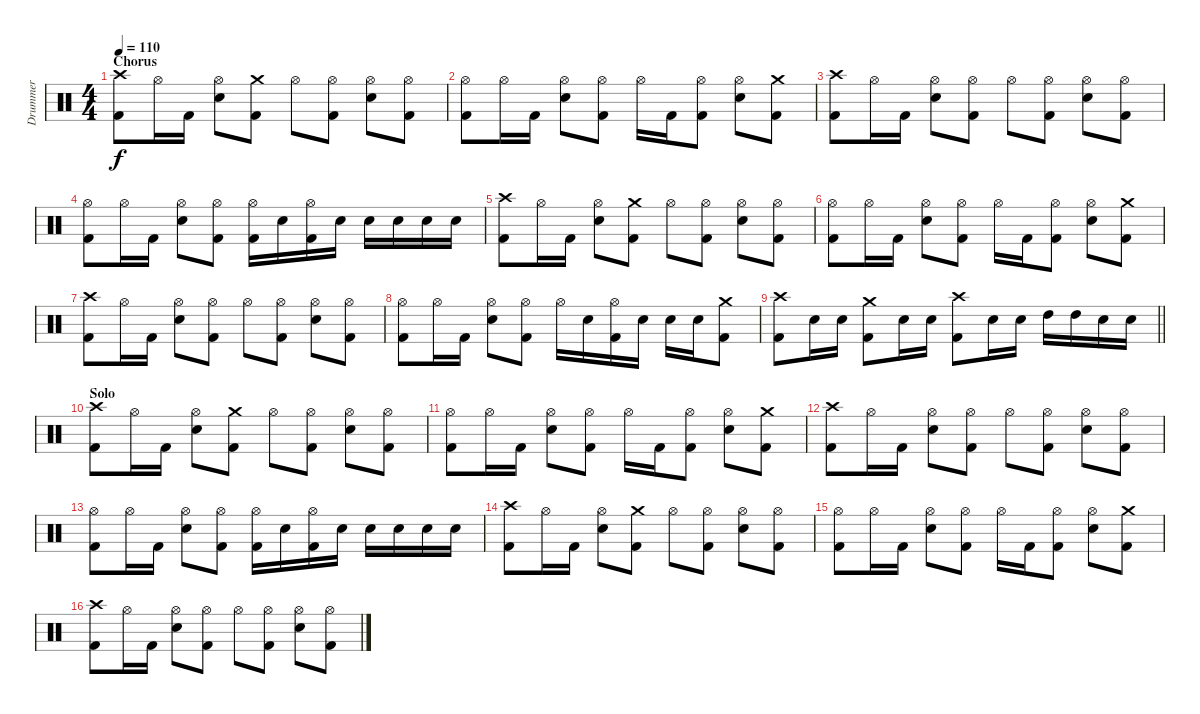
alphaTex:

\track ("Drummer" "Drummer") {instrument percussion}
\staff {score}
\articulation defaults
\ts (4 4)
\section ("" "Chorus")
\tempo 110
\clef neutral
\ks c
("Crash high (hit)" "Kick (hit) 2").8{dy f} "Hi-Hat (open)".16 "Kick (hit) 2".16 ("Hi-Hat (open)" "Electric Snare (hit)").8 ("Crash medium (hit)" "Kick (hit) 2").8 "Hi-Hat (open)".8 ("Hi-Hat (open)" "Kick (hit) 2").8 ("Hi-Hat (open)" "Electric Snare (hit)").8 ("Hi-Hat (open)" "Kick (hit) 2").8 |
("Hi-Hat (open)" "Kick (hit) 2").8 "Hi-Hat (open)".16 "Kick (hit) 2".16 ("Hi-Hat (open)" "Electric Snare (hit)").8 ("Hi-Hat (open)" "Kick (hit) 2").8 "Hi-Hat (open)".16 "Kick (hit) 2".16 ("Hi-Hat (open)" "Kick (hit) 2").8 ("Hi-Hat (open)" "Electric Snare (hit)").8 ("Crash medium (hit)" "Kick (hit) 2").8 |
("Crash high (hit)" "Kick (hit) 2").8 "Hi-Hat (open)".16 "Kick (hit) 2".16 ("Hi-Hat (open)" "Electric Snare (hit)").8 ("Hi-Hat (open)" "Kick (hit) 2").8 "Hi-Hat (open)".8 ("Hi-Hat (open)" "Kick (hit) 2").8 ("Hi-Hat (open)" "Electric Snare (hit)").8 ("Hi-Hat (open)" "Kick (hit) 2").8 |
("Hi-Hat (open)" "Kick (hit) 2").8 "Hi-Hat (open)".16 "Kick (hit) 2".16 ("Hi-Hat (open)" "Electric Snare (hit)").8 ("Hi-Hat (open)" "Kick (hit) 2").8 ("Hi-Hat (open)" "Kick (hit) 2").16 "Electric Snare (hit)".16 ("Hi-Hat (open)" "Kick (hit) 2").16 "Electric Snare (hit)".16 "Electric Snare (hit)".16 "Electric Snare (hit)".16 "Electric Snare (hit)".16 "Electric Snare (hit)".16 |
("Crash high (hit)" "Kick (hit) 2").8 "Hi-Hat (open)".16 "Kick (hit) 2".16 ("Hi-Hat (open)" "Electric Snare (hit)").8 ("Crash medium (hit)" "Kick (hit) 2").8 "Hi-Hat (open)".8 ("Hi-Hat (open)" "Kick (hit) 2").8 ("Hi-Hat (open)" "Electric Snare (hit)").8 ("Hi-Hat (open)" "Kick (hit) 2").8 |
("Hi-Hat (open)" "Kick (hit) 2").8 "Hi-Hat (open)".16 "Kick (hit) 2".16 ("Hi-Hat (open)" "Electric Snare (hit)").8 ("Hi-Hat (open)" "Kick (hit) 2").8 "Hi-Hat (open)".16 "Kick (hit) 2".16 ("Hi-Hat (open)" "Kick (hit) 2").8 ("Hi-Hat (open)" "Electric Snare (hit)").8 ("Crash medium (hit)" "Kick (hit) 2").8 |
("Crash high (hit)" "Kick (hit) 2").8 "Hi-Hat (open)".16 "Kick (hit) 2".16 ("Hi-Hat (open)" "Electric Snare (hit)").8 ("Hi-Hat (open)" "Kick (hit) 2").8 "Hi-Hat (open)".8 ("Hi-Hat (open)" "Kick (hit) 2").8 ("Hi-Hat (open)" "Electric Snare (hit)").8 ("Hi-Hat (open)" "Kick (hit) 2").8 |
("Hi-Hat (open)" "Kick (hit) 2").8 "Hi-Hat (open)".16 "Kick (hit) 2".16 ("Hi-Hat (open)" "Electric Snare (hit)").8 ("Hi-Hat (open)" "Kick (hit) 2").8 "Hi-Hat (open)".16 "Electric Snare (hit)".16 ("Hi-Hat (open)" "Kick (hit) 2").16 "Electric Snare (hit)".16 "Electric Snare (hit)".16 "Electric Snare (hit)".16 ("Crash medium (hit)" "Kick (hit) 2").8 |
\barLineRight lightlight
("Crash high (hit)" "Kick (hit) 2").8 "Electric Snare (hit)".16 "Electric Snare (hit)".16 ("Crash medium (hit)" "Kick (hit) 2").8 "Electric Snare (hit)".16 "Electric Snare (hit)".16 ("Crash high (hit)" "Kick (hit) 2").8 "Electric Snare (hit)".16 "Electric Snare (hit)".16 "High Tom (hit)".16 "High Tom (hit)".16 "Electric Snare (hit)".16 "Electric Snare (hit)".16 |
\section ("" "Solo")
("Crash high (hit)" "Kick (hit) 2").8 "Hi-Hat (open)".16 "Kick (hit) 2".16 ("Hi-Hat (open)" "Electric Snare (hit)").8 ("Crash medium (hit)" "Kick (hit) 2").8 "Hi-Hat (open)".8 ("Hi-Hat (open)" "Kick (hit) 2").8 ("Hi-Hat (open)" "Electric Snare (hit)").8 ("Hi-Hat (open)" "Kick (hit) 2").8 |
("Hi-Hat (open)" "Kick (hit) 2").8 "Hi-Hat (open)".16 "Kick (hit) 2".16 ("Hi-Hat (open)" "Electric Snare (hit)").8 ("Hi-Hat (open)" "Kick (hit) 2").8 "Hi-Hat (open)".16 "Kick (hit) 2".16 ("Hi-Hat (open)" "Kick (hit) 2").8 ("Hi-Hat (open)" "Electric Snare (hit)").8 ("Crash medium (hit)" "Kick (hit) 2").8 |
("Crash high (hit)" "Kick (hit) 2").8 "Hi-Hat (open)".16 "Kick (hit) 2".16 ("Hi-Hat (open)" "Electric Snare (hit)").8 ("Hi-Hat (open)" "Kick (hit) 2").8 "Hi-Hat (open)".8 ("Hi-Hat (open)" "Kick (hit) 2").8 ("Hi-Hat (open)" "Electric Snare (hit)").8 ("Hi-Hat (open)" "Kick (hit) 2").8 |
("Hi-Hat (open)" "Kick (hit) 2").8 "Hi-Hat (open)".16 "Kick (hit) 2".16 ("Hi-Hat (open)" "Electric Snare (hit)").8 ("Hi-Hat (open)" "Kick (hit) 2").8 ("Hi-Hat (open)" "Kick (hit) 2").16 "Electric Snare (hit)".16 ("Hi-Hat (open)" "Kick (hit) 2").16 "Electric Snare (hit)".16 "Electric Snare (hit)".16 "Electric Snare (hit)".16 "Electric Snare (hit)".16 "Electric Snare (hit)".16 |
("Crash high (hit)" "Kick (hit) 2").8 "Hi-Hat (open)".16 "Kick (hit) 2".16 ("Hi-Hat (open)" "Electric Snare (hit)").8 ("Crash medium (hit)" "Kick (hit) 2").8 "Hi-Hat (open)".8 ("Hi-Hat (open)" "Kick (hit) 2").8 ("Hi-Hat (open)" "Electric Snare (hit)").8 ("Hi-Hat (open)" "Kick (hit) 2").8 |
("Hi-Hat (open)" "Kick (hit) 2").8 "Hi-Hat (open)".16 "Kick (hit) 2".16 ("Hi-Hat (open)" "Electric Snare (hit)").8 ("Hi-Hat (open)" "Kick (hit) 2").8 "Hi-Hat (open)".16 "Kick (hit) 2".16 ("Hi-Hat (open)" "Kick (hit) 2").8 ("Hi-Hat (open)" "Electric Snare (hit)").8 ("Crash medium (hit)" "Kick (hit) 2").8 |
("Crash high (hit)" "Kick (hit) 2").8 "Hi-Hat (open)".16 "Kick (hit) 2".16 ("Hi-Hat (open)" "Electric Snare (hit)").8 ("Hi-Hat (open)" "Kick (hit) 2").8 "Hi-Hat (open)".8 ("Hi-Hat (open)" "Kick (hit) 2").8 ("Hi-Hat (open)" "Electric Snare (hit)").8 ("Hi-Hat (open)" "Kick (hit) 2").8
